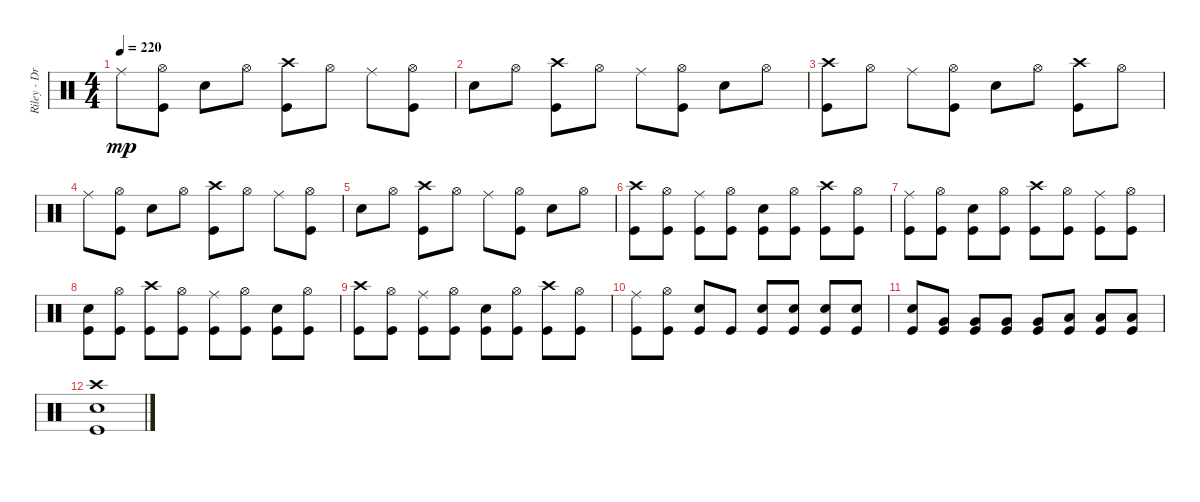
\track ("Riley - Drums" "Riley - Dr") {instrument percussion}
\staff {score}
\articulation defaults
\ts (4 4)
\tempo 220
\clef neutral
\ks c "Ride (middle)".8{dy mp}
("Kick (hit)" "Hi-Hat (open)").8 "Electric Snare (hit)".8 "Hi-Hat (open)".8 ("Kick (hit)" "Crash high (hit)").8 "Hi-Hat (open)".8 "Ride (middle)".8 ("Kick (hit)" "Hi-Hat (open)").8 |
"Electric Snare (hit)".8 "Hi-Hat (open)".8 ("Kick (hit)" "Crash high (hit)").8 "Hi-Hat (open)".8 "Ride (middle)".8 ("Kick (hit)" "Hi-Hat (open)").8 "Electric Snare (hit)".8 "Hi-Hat (open)".8 |
("Kick (hit)" "Crash high (hit)").8 "Hi-Hat (open)".8 "Ride (middle)".8 ("Kick (hit)" "Hi-Hat (open)").8 "Electric Snare (hit)".8 "Hi-Hat (open)".8 ("Kick (hit)" "Crash high (hit)").8 "Hi-Hat (open)".8 |
"Ride (middle)".8 ("Kick (hit)" "Hi-Hat (open)").8 "Electric Snare (hit)".8 "Hi-Hat (open)".8 ("Kick (hit)" "Crash high (hit)").8 "Hi-Hat (open)".8 "Ride (middle)".8 ("Kick (hit)" "Hi-Hat (open)").8 |
"Electric Snare (hit)".8 "Hi-Hat (open)".8 ("Kick (hit)" "Crash high (hit)").8 "Hi-Hat (open)".8 "Ride (middle)".8 ("Kick (hit)" "Hi-Hat (open)").8 "Electric Snare (hit)".8 "Hi-Hat (open)".8 |
("Kick (hit)" "Crash high (hit)").8 ("Kick (hit)" "Hi-Hat (open)").8 ("Kick (hit)" "Ride (middle)").8 ("Kick (hit)" "Hi-Hat (open)").8 ("Kick (hit)" "Electric Snare (hit)").8 ("Kick (hit)" "Hi-Hat (open)").8 ("Kick (hit)" "Crash high (hit)").8 ("Kick (hit)" "Hi-Hat (open)").8 |
("Kick (hit)" "Ride (middle)").8 ("Kick (hit)" "Hi-Hat (open)").8 ("Kick (hit)" "Electric Snare (hit)").8 ("Kick (hit)" "Hi-Hat (open)").8 ("Kick (hit)" "Crash high (hit)").8 ("Kick (hit)" "Hi-Hat (open)").8 ("Kick (hit)" "Ride (middle)").8 ("Kick (hit)" "Hi-Hat (open)").8 |
("Kick (hit)" "Electric Snare (hit)").8 ("Kick (hit)" "Hi-Hat (open)").8 ("Kick (hit)" "Crash high (hit)").8 ("Kick (hit)" "Hi-Hat (open)").8 ("Kick (hit)" "Ride (middle)").8 ("Kick (hit)" "Hi-Hat (open)").8 ("Kick (hit)" "Electric Snare (hit)").8 ("Kick (hit)" "Hi-Hat (open)").8 |
("Kick (hit)" "Crash high (hit)").8 ("Kick (hit)" "Hi-Hat (open)").8 ("Kick (hit)" "Ride (middle)").8 ("Kick (hit)" "Hi-Hat (open)").8 ("Kick (hit)" "Electric Snare (hit)").8 ("Kick (hit)" "Hi-Hat (open)").8 ("Kick (hit)" "Crash high (hit)").8 ("Kick (hit)" "Hi-Hat (open)").8 |
("Kick (hit)" "Ride (middle)").8 ("Kick (hit)" "Hi-Hat (open)").8 ("Kick (hit)" "Electric Snare (hit)").8 "Kick (hit)".8 ("Kick (hit)" "Electric Snare (hit)").8 ("Kick (hit)" "Electric Snare (hit)").8 ("Kick (hit)" "Electric Snare (hit)").8 ("Kick (hit)" "Electric Snare (hit)").8 |
("Kick (hit)" "Electric Snare (hit)").8 ("Kick (hit)" "Very Low Tom (hit)").8 ("Kick (hit)" "Very Low Tom (hit)").8 ("Kick (hit)" "Very Low Tom (hit)").8 ("Kick (hit)" "Very Low Tom (hit)").8 ("Kick (hit)" "Low Floor Tom (hit)").8 ("Kick (hit)" "Low Floor Tom (hit)").8 ("Kick (hit)" "Low Floor Tom (hit)").8 |
("Kick (hit)" "Electric Snare (hit)" "Crash high (hit)").1
